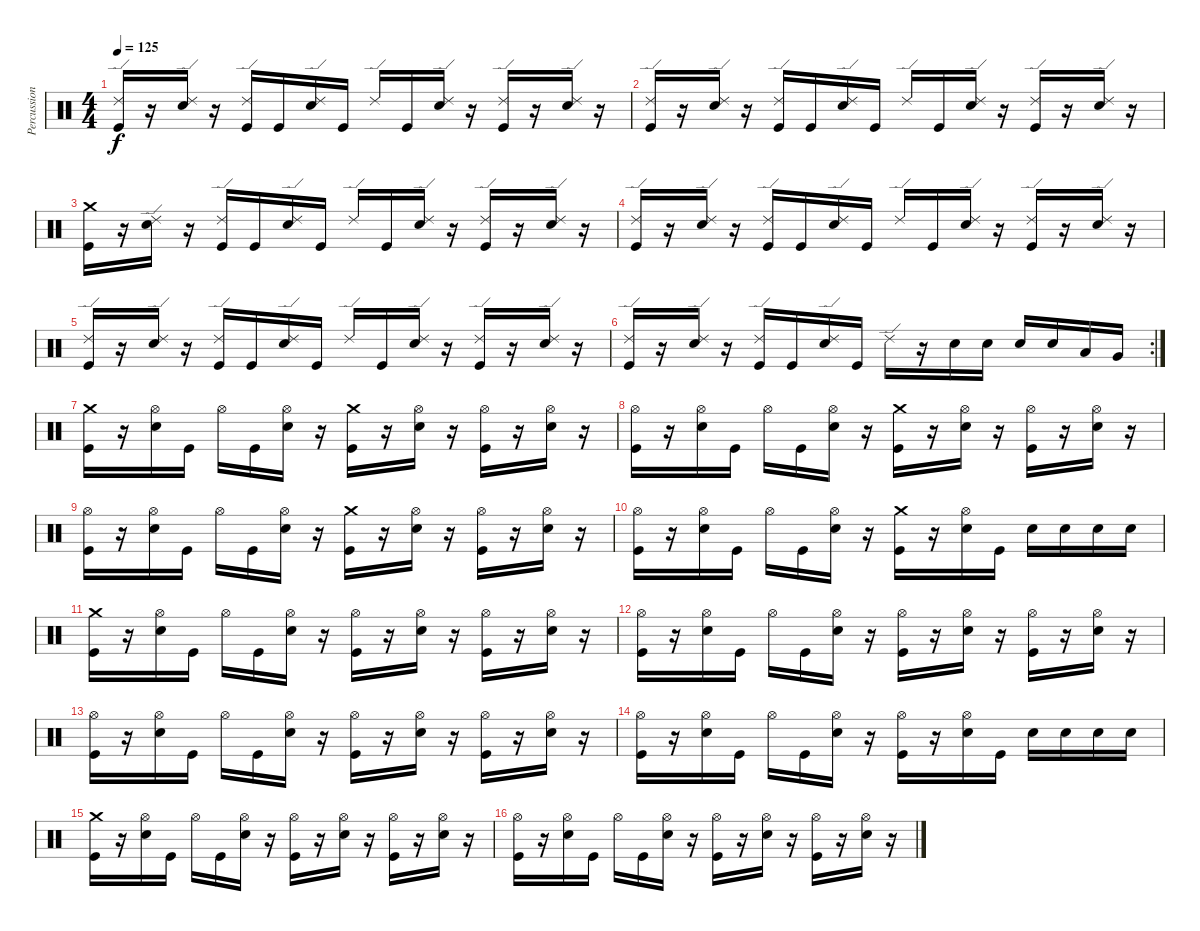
\track ("Percussion" "Percussion") {instrument percussion}
\staff {score}
\articulation defaults
\ts (4 4)
\tempo 125
\clef neutral
\ks c
("Ride (edge) 2" "Kick (hit)").16{dy f} r.16 ("Ride (edge) 2" "Snare (hit) 2").16 r.16 ("Ride (edge) 2" "Kick (hit)").16 "Kick (hit)".16 ("Ride (edge) 2" "Snare (hit) 2").16 "Kick (hit)".16 "Ride (edge) 2".16 "Kick (hit)".16 ("Ride (edge) 2" "Snare (hit) 2").16 r.16 ("Ride (edge) 2" "Kick (hit)").16 r.16 ("Ride (edge) 2" "Snare (hit) 2").16 r.16 |
("Ride (edge) 2" "Kick (hit)").16 r.16 ("Ride (edge) 2" "Snare (hit) 2").16 r.16 ("Ride (edge) 2" "Kick (hit)").16 "Kick (hit)".16 ("Ride (edge) 2" "Snare (hit) 2").16 "Kick (hit)".16 "Ride (edge) 2".16 "Kick (hit)".16 ("Ride (edge) 2" "Snare (hit) 2").16 r.16 ("Ride (edge) 2" "Kick (hit)").16 r.16 ("Ride (edge) 2" "Snare (hit) 2").16 r.16 |
("Crash medium (hit)" "Kick (hit)").16 r.16 ("Ride (edge) 2" "Snare (hit) 2").16 r.16 ("Ride (edge) 2" "Kick (hit)").16 "Kick (hit)".16 ("Ride (edge) 2" "Snare (hit) 2").16 "Kick (hit)".16 "Ride (edge) 2".16 "Kick (hit)".16 ("Ride (edge) 2" "Snare (hit) 2").16 r.16 ("Ride (edge) 2" "Kick (hit)").16 r.16 ("Ride (edge) 2" "Snare (hit) 2").16 r.16 |
("Ride (edge) 2" "Kick (hit)").16 r.16 ("Ride (edge) 2" "Snare (hit) 2").16 r.16 ("Ride (edge) 2" "Kick (hit)").16 "Kick (hit)".16 ("Ride (edge) 2" "Snare (hit) 2").16 "Kick (hit)".16 "Ride (edge) 2".16 "Kick (hit)".16 ("Ride (edge) 2" "Snare (hit) 2").16 r.16 ("Ride (edge) 2" "Kick (hit)").16 r.16 ("Ride (edge) 2" "Snare (hit) 2").16 r.16 |
("Ride (edge) 2" "Kick (hit)").16 r.16 ("Ride (edge) 2" "Snare (hit) 2").16 r.16 ("Ride (edge) 2" "Kick (hit)").16 "Kick (hit)".16 ("Ride (edge) 2" "Snare (hit) 2").16 "Kick (hit)".16 "Ride (edge) 2".16 "Kick (hit)".16 ("Ride (edge) 2" "Snare (hit) 2").16 r.16 ("Ride (edge) 2" "Kick (hit)").16 r.16 ("Ride (edge) 2" "Snare (hit) 2").16 r.16 |
\rc 2
("Ride (edge) 2" "Kick (hit)").16 r.16 ("Ride (edge) 2" "Snare (hit) 2").16 r.16 ("Ride (edge) 2" "Kick (hit)").16 "Kick (hit)".16 ("Ride (edge) 2" "Snare (hit) 2").16 "Kick (hit)".16 "Ride (edge) 2".16 r.16 "Snare (hit) 2".16 "Snare (hit) 2".16 "Snare (hit) 2".16 "Snare (hit) 2".16 "Low Tom (hit)".16 "Very Low Tom (hit)".16 |
("Crash medium (hit)" "Kick (hit)").16 r.16 ("Hi-Hat (open)" "Snare (hit) 2").16 "Kick (hit)".16 "Hi-Hat (open)".16 "Kick (hit)".16 ("Hi-Hat (open)" "Snare (hit) 2").16 r.16 ("Crash medium (hit)" "Kick (hit)").16 r.16 ("Hi-Hat (open)" "Snare (hit) 2").16 r.16 ("Hi-Hat (open)" "Kick (hit)").16 r.16 ("Hi-Hat (open)" "Snare (hit) 2").16 r.16 |
("Hi-Hat (open)" "Kick (hit)").16 r.16 ("Hi-Hat (open)" "Snare (hit) 2").16 "Kick (hit)".16 "Hi-Hat (open)".16 "Kick (hit)".16 ("Hi-Hat (open)" "Snare (hit) 2").16 r.16 ("Crash medium (hit)" "Kick (hit)").16 r.16 ("Hi-Hat (open)" "Snare (hit) 2").16 r.16 ("Hi-Hat (open)" "Kick (hit)").16 r.16 ("Hi-Hat (open)" "Snare (hit) 2").16 r.16 |
("Hi-Hat (open)" "Kick (hit)").16 r.16 ("Hi-Hat (open)" "Snare (hit) 2").16 "Kick (hit)".16 "Hi-Hat (open)".16 "Kick (hit)".16 ("Hi-Hat (open)" "Snare (hit) 2").16 r.16 ("Crash medium (hit)" "Kick (hit)").16 r.16 ("Hi-Hat (open)" "Snare (hit) 2").16 r.16 ("Hi-Hat (open)" "Kick (hit)").16 r.16 ("Hi-Hat (open)" "Snare (hit) 2").16 r.16 |
("Hi-Hat (open)" "Kick (hit)").16 r.16 ("Hi-Hat (open)" "Snare (hit) 2").16 "Kick (hit)".16 "Hi-Hat (open)".16 "Kick (hit)".16 ("Hi-Hat (open)" "Snare (hit) 2").16 r.16 ("Crash medium (hit)" "Kick (hit)").16 r.16 ("Hi-Hat (open)" "Snare (hit) 2").16 "Kick (hit)".16 "Snare (hit) 2".16 "Snare (hit) 2".16 "Snare (hit) 2".16 "Snare (hit) 2".16 |
("Crash medium (hit)" "Kick (hit)").16 r.16 ("Hi-Hat (open)" "Snare (hit) 2").16 "Kick (hit)".16 "Hi-Hat (open)".16 "Kick (hit)".16 ("Hi-Hat (open)" "Snare (hit) 2").16 r.16 ("Hi-Hat (open)" "Kick (hit)").16 r.16 ("Hi-Hat (open)" "Snare (hit) 2").16 r.16 ("Hi-Hat (open)" "Kick (hit)").16 r.16 ("Hi-Hat (open)" "Snare (hit) 2").16 r.16 |
("Hi-Hat (open)" "Kick (hit)").16 r.16 ("Hi-Hat (open)" "Snare (hit) 2").16 "Kick (hit)".16 "Hi-Hat (open)".16 "Kick (hit)".16 ("Hi-Hat (open)" "Snare (hit) 2").16 r.16 ("Hi-Hat (open)" "Kick (hit)").16 r.16 ("Hi-Hat (open)" "Snare (hit) 2").16 r.16 ("Hi-Hat (open)" "Kick (hit)").16 r.16 ("Hi-Hat (open)" "Snare (hit) 2").16 r.16 |
("Hi-Hat (open)" "Kick (hit)").16 r.16 ("Hi-Hat (open)" "Snare (hit) 2").16 "Kick (hit)".16 "Hi-Hat (open)".16 "Kick (hit)".16 ("Hi-Hat (open)" "Snare (hit) 2").16 r.16 ("Hi-Hat (open)" "Kick (hit)").16 r.16 ("Hi-Hat (open)" "Snare (hit) 2").16 r.16 ("Hi-Hat (open)" "Kick (hit)").16 r.16 ("Hi-Hat (open)" "Snare (hit) 2").16 r.16 |
("Hi-Hat (open)" "Kick (hit)").16 r.16 ("Hi-Hat (open)" "Snare (hit) 2").16 "Kick (hit)".16 "Hi-Hat (open)".16 "Kick (hit)".16 ("Hi-Hat (open)" "Snare (hit) 2").16 r.16 ("Hi-Hat (open)" "Kick (hit)").16 r.16 ("Hi-Hat (open)" "Snare (hit) 2").16 "Kick (hit)".16 "Snare (hit) 2".16 "Snare (hit) 2".16 "Snare (hit) 2".16 "Snare (hit) 2".16 |
("Crash medium (hit)" "Kick (hit)").16 r.16 ("Hi-Hat (open)" "Snare (hit) 2").16 "Kick (hit)".16 "Hi-Hat (open)".16 "Kick (hit)".16 ("Hi-Hat (open)" "Snare (hit) 2").16 r.16 ("Hi-Hat (open)" "Kick (hit)").16 r.16 ("Hi-Hat (open)" "Snare (hit) 2").16 r.16 ("Hi-Hat (open)" "Kick (hit)").16 r.16 ("Hi-Hat (open)" "Snare (hit) 2").16 r.16 |
("Hi-Hat (open)" "Kick (hit)").16 r.16 ("Hi-Hat (open)" "Snare (hit) 2").16 "Kick (hit)".16 "Hi-Hat (open)".16 "Kick (hit)".16 ("Hi-Hat (open)" "Snare (hit) 2").16 r.16 ("Hi-Hat (open)" "Kick (hit)").16 r.16 ("Hi-Hat (open)" "Snare (hit) 2").16 r.16 ("Hi-Hat (open)" "Kick (hit)").16 r.16 ("Hi-Hat (open)" "Snare (hit) 2").16 r.16
